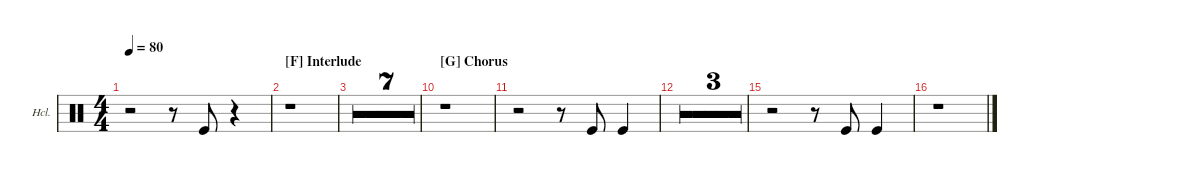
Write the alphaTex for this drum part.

\defaultSystemsLayout 4
\hideDynamics
\bracketExtendMode groupsimilarinstruments
\firstSystemTrackNameOrientation horizontal
\otherSystemsTrackNameOrientation horizontal
\track ("Hand Clap" "Hcl.") {multiBarRest instrument percussion}
\staff {score}
\articulation defaults
\ts (4 4)
\tempo 80
\clef neutral
\ks c
r.2{dy mp} r.8 "Kick (hit)".8 r.4 |
\section ("F" "Interlude")
r.1 |
r.1 |
r.1 |
r.1 |
r.1 |
r.1 |
r.1 |
r.1 |
\section ("G" "Chorus")
r.1 |
r.2 r.8 "Kick (hit)".8 "Kick (hit)".4 |
r.1 |
r.1 |
r.1 |
r.2 r.8 "Kick (hit)".8 "Kick (hit)".4 |
r.1
